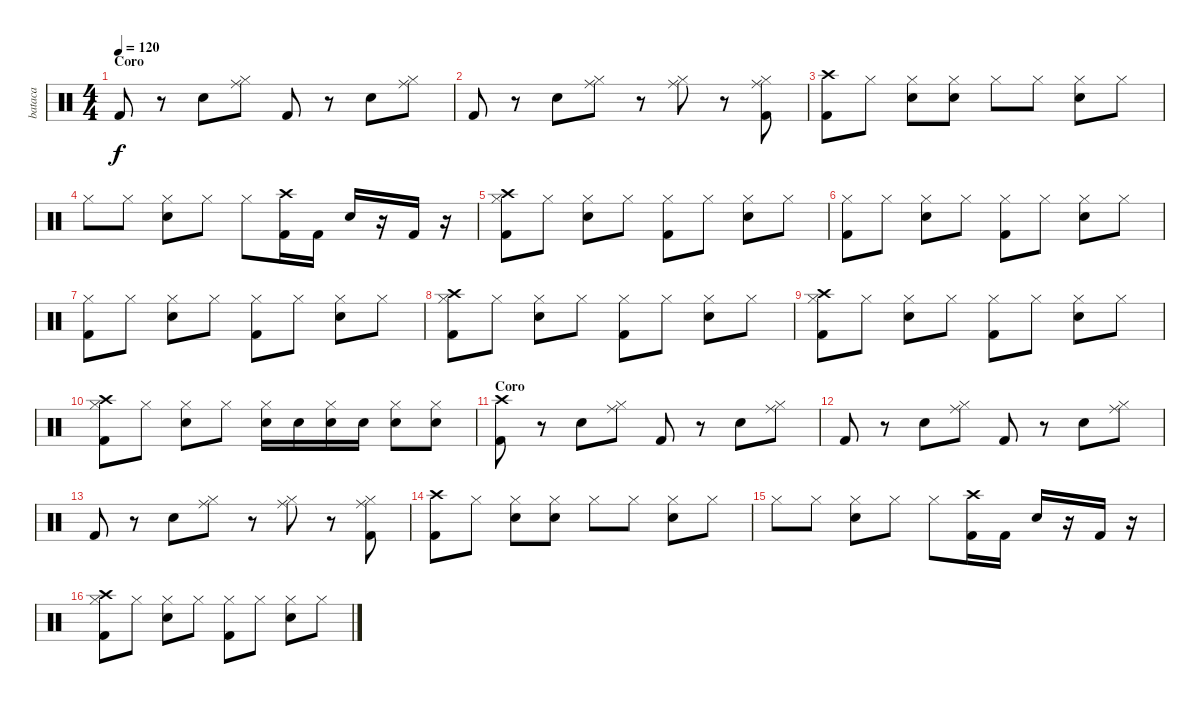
\track ("bataca" "bataca") {instrument percussion}
\staff {score}
\articulation defaults
\ts (4 4)
\section ("" "Coro")
\tempo 120
\clef neutral
\ks c "Kick (hit) 2".8{dy f}
r.8 "Electric Snare (hit)".8 ("Ride (middle)" "Hi-Hat (closed)").8 "Kick (hit) 2".8 r.8 "Electric Snare (hit)".8 ("Ride (middle)" "Hi-Hat (closed)").8 |
"Kick (hit) 2".8 r.8 "Electric Snare (hit)".8 ("Ride (middle)" "Hi-Hat (closed)").8 r.8 ("Ride (middle)" "Hi-Hat (closed)").8 r.8 ("Ride (middle)" "Hi-Hat (closed)" "Kick (hit) 2").8 |
("Crash high (hit)" "Kick (hit) 2").8 "Hi-Hat (closed)".8 ("Hi-Hat (closed)" "Electric Snare (hit)").8 ("Hi-Hat (closed)" "Electric Snare (hit)").8 "Hi-Hat (closed)".8 "Hi-Hat (closed)".8 ("Hi-Hat (closed)" "Electric Snare (hit)").8 "Hi-Hat (closed)".8 |
"Hi-Hat (closed)".8 "Hi-Hat (closed)".8 ("Hi-Hat (closed)" "Electric Snare (hit)").8 "Hi-Hat (closed)".8 "Hi-Hat (closed)".8 ("Crash high (hit)" "Kick (hit) 2").16 "Kick (hit) 2".16 "Electric Snare (hit)".16 r.16 "Kick (hit) 2".16 r.16 |
("Hi-Hat (closed)" "Kick (hit) 2" "Crash high (hit)").8 "Hi-Hat (closed)".8 ("Hi-Hat (closed)" "Electric Snare (hit)").8 "Hi-Hat (closed)".8 ("Hi-Hat (closed)" "Kick (hit) 2").8 "Hi-Hat (closed)".8 ("Hi-Hat (closed)" "Electric Snare (hit)").8 "Hi-Hat (closed)".8 |
("Hi-Hat (closed)" "Kick (hit) 2").8 "Hi-Hat (closed)".8 ("Hi-Hat (closed)" "Electric Snare (hit)").8 "Hi-Hat (closed)".8 ("Hi-Hat (closed)" "Kick (hit) 2").8 "Hi-Hat (closed)".8 ("Hi-Hat (closed)" "Electric Snare (hit)").8 "Hi-Hat (closed)".8 |
("Hi-Hat (closed)" "Kick (hit) 2").8 "Hi-Hat (closed)".8 ("Hi-Hat (closed)" "Electric Snare (hit)").8 "Hi-Hat (closed)".8 ("Hi-Hat (closed)" "Kick (hit) 2").8 "Hi-Hat (closed)".8 ("Hi-Hat (closed)" "Electric Snare (hit)").8 "Hi-Hat (closed)".8 |
("Hi-Hat (closed)" "Kick (hit) 2" "Crash high (hit)").8 "Hi-Hat (closed)".8 ("Hi-Hat (closed)" "Electric Snare (hit)").8 "Hi-Hat (closed)".8 ("Hi-Hat (closed)" "Kick (hit) 2").8 "Hi-Hat (closed)".8 ("Hi-Hat (closed)" "Electric Snare (hit)").8 "Hi-Hat (closed)".8 |
("Hi-Hat (closed)" "Kick (hit) 2" "Crash high (hit)").8 "Hi-Hat (closed)".8 ("Hi-Hat (closed)" "Electric Snare (hit)").8 "Hi-Hat (closed)".8 ("Hi-Hat (closed)" "Kick (hit) 2").8 "Hi-Hat (closed)".8 ("Hi-Hat (closed)" "Electric Snare (hit)").8 "Hi-Hat (closed)".8 |
("Hi-Hat (closed)" "Kick (hit) 2" "Crash high (hit)").8 "Hi-Hat (closed)".8 ("Hi-Hat (closed)" "Electric Snare (hit)").8 "Hi-Hat (closed)".8 ("Hi-Hat (closed)" "Electric Snare (hit)").16 "Electric Snare (hit)".16 ("Hi-Hat (closed)" "Electric Snare (hit)").16 "Electric Snare (hit)".16 ("Hi-Hat (closed)" "Electric Snare (hit)").8 ("Hi-Hat (closed)" "Electric Snare (hit)").8 |
\section ("" "Coro")
("Crash high (hit)" "Kick (hit) 2").8 r.8 "Electric Snare (hit)".8 ("Ride (middle)" "Hi-Hat (closed)").8 "Kick (hit) 2".8 r.8 "Electric Snare (hit)".8 ("Ride (middle)" "Hi-Hat (closed)").8 |
"Kick (hit) 2".8 r.8 "Electric Snare (hit)".8 ("Ride (middle)" "Hi-Hat (closed)").8 "Kick (hit) 2".8 r.8 "Electric Snare (hit)".8 ("Ride (middle)" "Hi-Hat (closed)").8 |
"Kick (hit) 2".8 r.8 "Electric Snare (hit)".8 ("Ride (middle)" "Hi-Hat (closed)").8 r.8 ("Ride (middle)" "Hi-Hat (closed)").8 r.8 ("Ride (middle)" "Hi-Hat (closed)" "Kick (hit) 2").8 |
("Crash high (hit)" "Kick (hit) 2").8 "Hi-Hat (closed)".8 ("Hi-Hat (closed)" "Electric Snare (hit)").8 ("Hi-Hat (closed)" "Electric Snare (hit)").8 "Hi-Hat (closed)".8 "Hi-Hat (closed)".8 ("Hi-Hat (closed)" "Electric Snare (hit)").8 "Hi-Hat (closed)".8 |
"Hi-Hat (closed)".8 "Hi-Hat (closed)".8 ("Hi-Hat (closed)" "Electric Snare (hit)").8 "Hi-Hat (closed)".8 "Hi-Hat (closed)".8 ("Crash high (hit)" "Kick (hit) 2").16 "Kick (hit) 2".16 "Electric Snare (hit)".16 r.16 "Kick (hit) 2".16 r.16 |
("Hi-Hat (closed)" "Kick (hit) 2" "Crash high (hit)").8 "Hi-Hat (closed)".8 ("Hi-Hat (closed)" "Electric Snare (hit)").8 "Hi-Hat (closed)".8 ("Hi-Hat (closed)" "Kick (hit) 2").8 "Hi-Hat (closed)".8 ("Hi-Hat (closed)" "Electric Snare (hit)").8 "Hi-Hat (closed)".8
